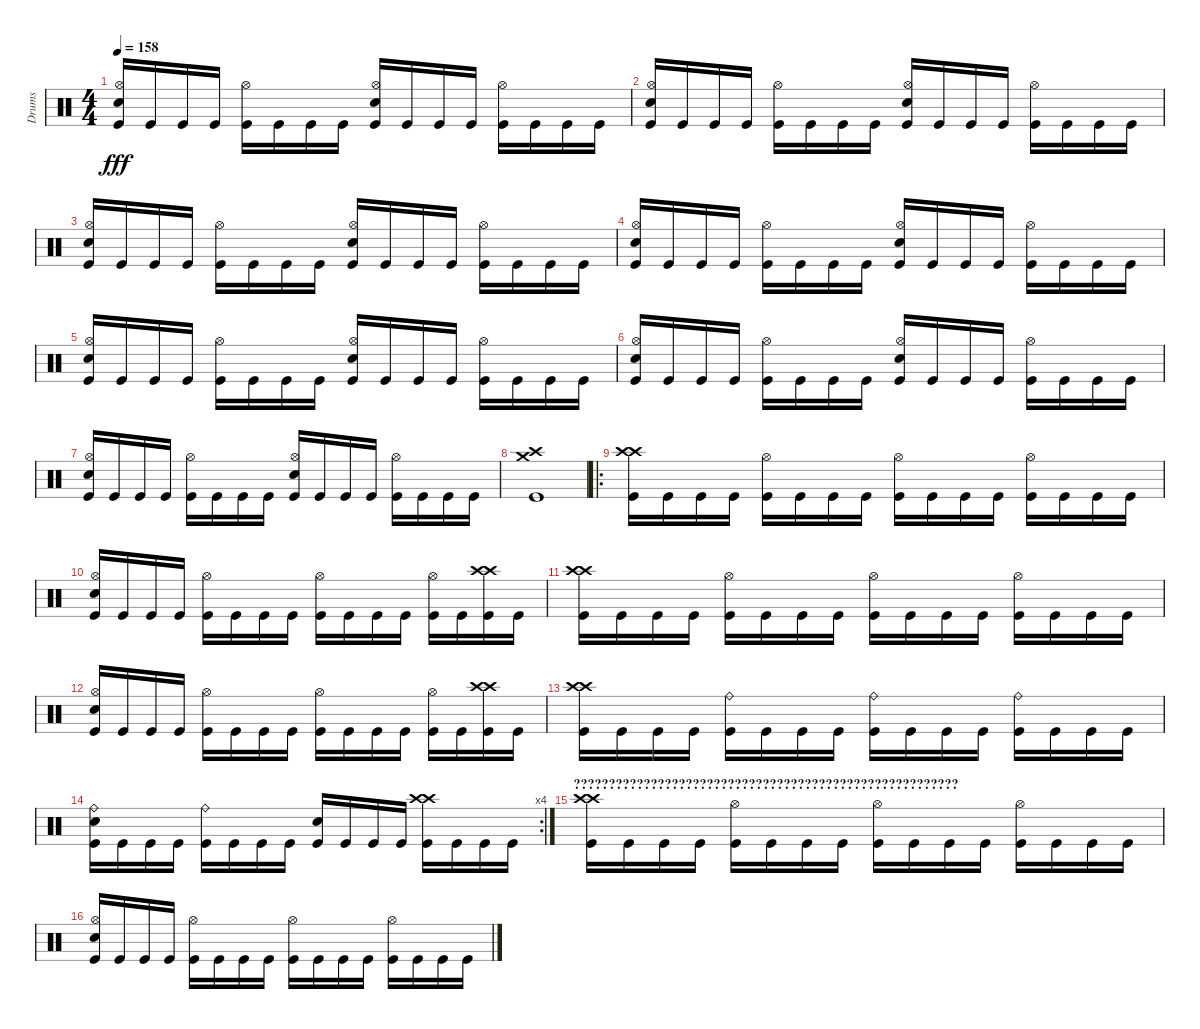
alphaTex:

\track ("Drums" "Drums") {instrument percussion}
\staff {score}
\articulation defaults
\ts (4 4)
\tempo 158
\clef neutral
\ks c
("Electric Snare (hit)" "Hi-Hat (open)" "Kick (hit)").16{dy fff} "Kick (hit)".16 "Kick (hit)".16 "Kick (hit)".16 ("Hi-Hat (open)" "Kick (hit)").16 "Kick (hit)".16 "Kick (hit)".16 "Kick (hit)".16 ("Electric Snare (hit)" "Hi-Hat (open)" "Kick (hit)").16 "Kick (hit)".16 "Kick (hit)".16 "Kick (hit)".16 ("Hi-Hat (open)" "Kick (hit)").16 "Kick (hit)".16 "Kick (hit)".16 "Kick (hit)".16 |
("Electric Snare (hit)" "Hi-Hat (open)" "Kick (hit)").16 "Kick (hit)".16 "Kick (hit)".16 "Kick (hit)".16 ("Hi-Hat (open)" "Kick (hit)").16 "Kick (hit)".16 "Kick (hit)".16 "Kick (hit)".16 ("Electric Snare (hit)" "Hi-Hat (open)" "Kick (hit)").16 "Kick (hit)".16 "Kick (hit)".16 "Kick (hit)".16 ("Hi-Hat (open)" "Kick (hit)").16 "Kick (hit)".16 "Kick (hit)".16 "Kick (hit)".16 |
("Electric Snare (hit)" "Hi-Hat (open)" "Kick (hit)").16 "Kick (hit)".16 "Kick (hit)".16 "Kick (hit)".16 ("Hi-Hat (open)" "Kick (hit)").16 "Kick (hit)".16 "Kick (hit)".16 "Kick (hit)".16 ("Electric Snare (hit)" "Hi-Hat (open)" "Kick (hit)").16 "Kick (hit)".16 "Kick (hit)".16 "Kick (hit)".16 ("Hi-Hat (open)" "Kick (hit)").16 "Kick (hit)".16 "Kick (hit)".16 "Kick (hit)".16 |
("Electric Snare (hit)" "Hi-Hat (open)" "Kick (hit)").16 "Kick (hit)".16 "Kick (hit)".16 "Kick (hit)".16 ("Hi-Hat (open)" "Kick (hit)").16 "Kick (hit)".16 "Kick (hit)".16 "Kick (hit)".16 ("Electric Snare (hit)" "Hi-Hat (open)" "Kick (hit)").16 "Kick (hit)".16 "Kick (hit)".16 "Kick (hit)".16 ("Hi-Hat (open)" "Kick (hit)").16 "Kick (hit)".16 "Kick (hit)".16 "Kick (hit)".16 |
("Electric Snare (hit)" "Hi-Hat (open)" "Kick (hit)").16 "Kick (hit)".16 "Kick (hit)".16 "Kick (hit)".16 ("Hi-Hat (open)" "Kick (hit)").16 "Kick (hit)".16 "Kick (hit)".16 "Kick (hit)".16 ("Electric Snare (hit)" "Hi-Hat (open)" "Kick (hit)").16 "Kick (hit)".16 "Kick (hit)".16 "Kick (hit)".16 ("Hi-Hat (open)" "Kick (hit)").16 "Kick (hit)".16 "Kick (hit)".16 "Kick (hit)".16 |
("Electric Snare (hit)" "Hi-Hat (open)" "Kick (hit)").16 "Kick (hit)".16 "Kick (hit)".16 "Kick (hit)".16 ("Hi-Hat (open)" "Kick (hit)").16 "Kick (hit)".16 "Kick (hit)".16 "Kick (hit)".16 ("Electric Snare (hit)" "Hi-Hat (open)" "Kick (hit)").16 "Kick (hit)".16 "Kick (hit)".16 "Kick (hit)".16 ("Hi-Hat (open)" "Kick (hit)").16 "Kick (hit)".16 "Kick (hit)".16 "Kick (hit)".16 |
("Electric Snare (hit)" "Hi-Hat (open)" "Kick (hit)").16 "Kick (hit)".16 "Kick (hit)".16 "Kick (hit)".16 ("Hi-Hat (open)" "Kick (hit)").16 "Kick (hit)".16 "Kick (hit)".16 "Kick (hit)".16 ("Electric Snare (hit)" "Hi-Hat (open)" "Kick (hit)").16 "Kick (hit)".16 "Kick (hit)".16 "Kick (hit)".16 ("Hi-Hat (open)" "Kick (hit)").16 "Kick (hit)".16 "Kick (hit)".16 "Kick (hit)".16 |
("Crash medium (hit)" "Crash high (hit)" "Kick (hit)").1 |
\ro
("Crash high (hit)" "Crash high (hit)" "Kick (hit)").16 "Kick (hit)".16 "Kick (hit)".16 "Kick (hit)".16 ("Hi-Hat (open)" "Kick (hit)").16 "Kick (hit)".16 "Kick (hit)".16 "Kick (hit)".16 ("Hi-Hat (open)" "Kick (hit)").16 "Kick (hit)".16 "Kick (hit)".16 "Kick (hit)".16 ("Hi-Hat (open)" "Kick (hit)").16 "Kick (hit)".16 "Kick (hit)".16 "Kick (hit)".16 |
("Electric Snare (hit)" "Hi-Hat (open)" "Kick (hit)").16 "Kick (hit)".16 "Kick (hit)".16 "Kick (hit)".16 ("Hi-Hat (open)" "Kick (hit)").16 "Kick (hit)".16 "Kick (hit)".16 "Kick (hit)".16 ("Hi-Hat (open)" "Kick (hit)").16 "Kick (hit)".16 "Kick (hit)".16 "Kick (hit)".16 ("Hi-Hat (open)" "Kick (hit)").16 "Kick (hit)".16 ("Crash high (hit)" "Crash high (hit)" "Kick (hit)").16 "Kick (hit)".16 |
("Crash high (hit)" "Crash high (hit)" "Kick (hit)").16 "Kick (hit)".16 "Kick (hit)".16 "Kick (hit)".16 ("Hi-Hat (open)" "Kick (hit)").16 "Kick (hit)".16 "Kick (hit)".16 "Kick (hit)".16 ("Hi-Hat (open)" "Kick (hit)").16 "Kick (hit)".16 "Kick (hit)".16 "Kick (hit)".16 ("Hi-Hat (open)" "Kick (hit)").16 "Kick (hit)".16 "Kick (hit)".16 "Kick (hit)".16 |
("Electric Snare (hit)" "Hi-Hat (open)" "Kick (hit)").16 "Kick (hit)".16 "Kick (hit)".16 "Kick (hit)".16 ("Hi-Hat (open)" "Kick (hit)").16 "Kick (hit)".16 "Kick (hit)".16 "Kick (hit)".16 ("Hi-Hat (open)" "Kick (hit)").16 "Kick (hit)".16 "Kick (hit)".16 "Kick (hit)".16 ("Hi-Hat (open)" "Kick (hit)").16 "Kick (hit)".16 ("Crash high (hit)" "Crash high (hit)" "Kick (hit)").16 "Kick (hit)".16 |
("Crash high (hit)" "Crash high (hit)" "Kick (hit)").16 "Kick (hit)".16 "Kick (hit)".16 "Kick (hit)".16 ("Ride (bell)" "Kick (hit)").16 "Kick (hit)".16 "Kick (hit)".16 "Kick (hit)".16 ("Ride (bell)" "Kick (hit)").16 "Kick (hit)".16 "Kick (hit)".16 "Kick (hit)".16 ("Ride (bell)" "Kick (hit)").16 "Kick (hit)".16 "Kick (hit)".16 "Kick (hit)".16 |
\rc 4
("Electric Snare (hit)" "Ride (bell)" "Kick (hit)").16 "Kick (hit)".16 "Kick (hit)".16 "Kick (hit)".16 ("Ride (bell)" "Kick (hit)").16 "Kick (hit)".16 "Kick (hit)".16 "Kick (hit)".16 ("Electric Snare (hit)" "Kick (hit)").16 "Kick (hit)".16 "Kick (hit)".16 "Kick (hit)".16 ("Crash high (hit)" "Crash high (hit)" "Kick (hit)").16 "Kick (hit)".16 "Kick (hit)".16 "Kick (hit)".16 |
\section ("" "???????????????????????????????????????????????????????")
("Crash high (hit)" "Crash high (hit)" "Kick (hit)").16 "Kick (hit)".16 "Kick (hit)".16 "Kick (hit)".16 ("Hi-Hat (open)" "Kick (hit)").16 "Kick (hit)".16 "Kick (hit)".16 "Kick (hit)".16 ("Hi-Hat (open)" "Kick (hit)").16 "Kick (hit)".16 "Kick (hit)".16 "Kick (hit)".16 ("Hi-Hat (open)" "Kick (hit)").16 "Kick (hit)".16 "Kick (hit)".16 "Kick (hit)".16 |
("Electric Snare (hit)" "Hi-Hat (open)" "Kick (hit)").16 "Kick (hit)".16 "Kick (hit)".16 "Kick (hit)".16 ("Hi-Hat (open)" "Kick (hit)").16 "Kick (hit)".16 "Kick (hit)".16 "Kick (hit)".16 ("Hi-Hat (open)" "Kick (hit)").16 "Kick (hit)".16 "Kick (hit)".16 "Kick (hit)".16 ("Hi-Hat (open)" "Kick (hit)").16 "Kick (hit)".16 "Kick (hit)".16 "Kick (hit)".16
